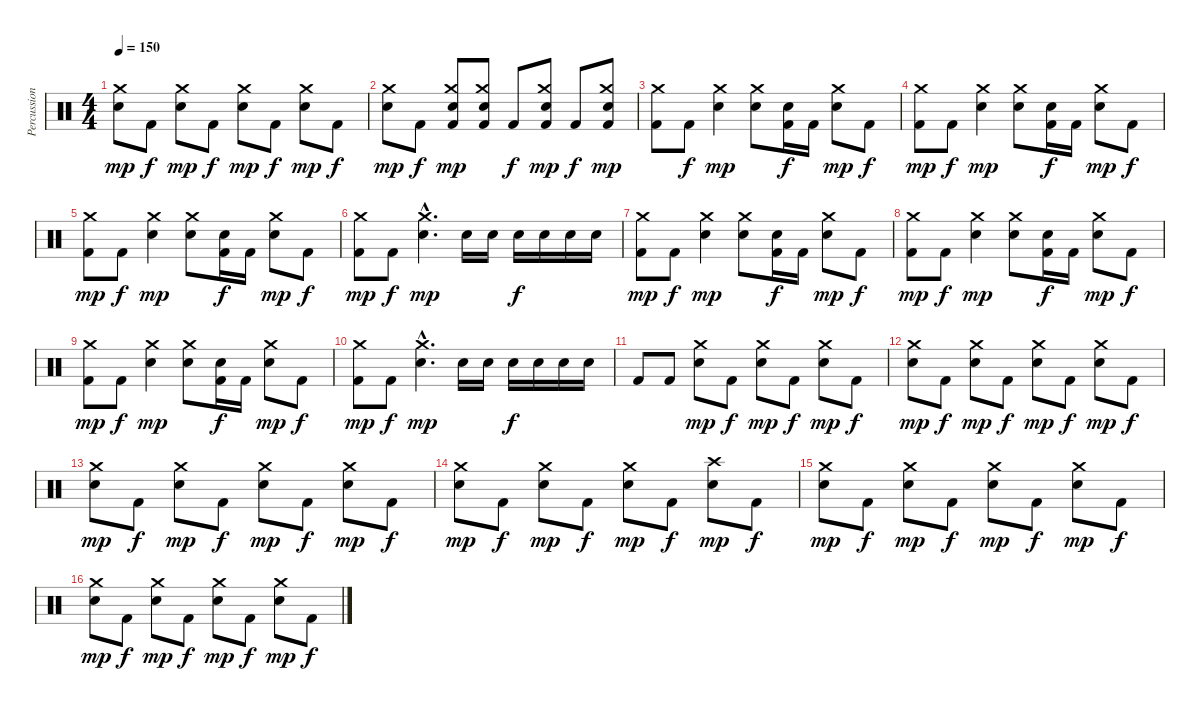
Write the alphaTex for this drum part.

\track ("Percussions" "Percussion") {instrument percussion}
\staff {score}
\articulation defaults
\ts (4 4)
\tempo 150
\clef neutral
\ks c
("Electric Snare (hit)" "Crash medium (hit)").8{dy mp} "Kick (hit) 2".8{dy f} ("Electric Snare (hit)" "Crash medium (hit)").8{dy mp} "Kick (hit) 2".8{dy f} ("Electric Snare (hit)" "Crash medium (hit)").8{dy mp} "Kick (hit) 2".8{dy f} ("Electric Snare (hit)" "Crash medium (hit)").8{dy mp} "Kick (hit) 2".8{dy f} |
("Electric Snare (hit)" "Crash medium (hit)").8{dy mp} "Kick (hit) 2".8{dy f} ("Kick (hit) 2" "Electric Snare (hit)" "Crash medium (hit)").8{dy mp} ("Kick (hit) 2" "Electric Snare (hit)" "Crash medium (hit)").8 "Kick (hit) 2".8{dy f} ("Kick (hit) 2" "Electric Snare (hit)" "Crash medium (hit)").8{dy mp} "Kick (hit) 2".8{dy f} ("Kick (hit) 2" "Electric Snare (hit)" "Crash medium (hit)").8{dy mp} |
("Kick (hit) 2" "Crash medium (hit)").8 "Kick (hit) 2".8{dy f} ("Electric Snare (hit)" "Crash medium (hit)").4{dy mp} ("Electric Snare (hit)" "Crash medium (hit)").8 ("Kick (hit) 2" "Electric Snare (hit)").16{dy f} "Kick (hit) 2".16 ("Electric Snare (hit)" "Crash medium (hit)").8{dy mp} "Kick (hit) 2".8{dy f} |
("Kick (hit) 2" "Crash medium (hit)").8{dy mp} "Kick (hit) 2".8{dy f} ("Electric Snare (hit)" "Crash medium (hit)").4{dy mp} ("Electric Snare (hit)" "Crash medium (hit)").8 ("Kick (hit) 2" "Electric Snare (hit)").16{dy f} "Kick (hit) 2".16 ("Electric Snare (hit)" "Crash medium (hit)").8{dy mp} "Kick (hit) 2".8{dy f} |
("Kick (hit) 2" "Crash medium (hit)").8{dy mp} "Kick (hit) 2".8{dy f} ("Electric Snare (hit)" "Crash medium (hit)").4{dy mp} ("Electric Snare (hit)" "Crash medium (hit)").8 ("Kick (hit) 2" "Electric Snare (hit)").16{dy f} "Kick (hit) 2".16 ("Electric Snare (hit)" "Crash medium (hit)").8{dy mp} "Kick (hit) 2".8{dy f} |
("Kick (hit) 2" "Crash medium (hit)").8{dy mp} "Kick (hit) 2".8{dy f} ("Electric Snare (hit)"{hac} "Crash medium (hit)"{hac}).4{d dy mp} "Electric Snare (hit)".16 "Electric Snare (hit)".16 "Electric Snare (hit)".16{dy f} "Electric Snare (hit)".16 "Electric Snare (hit)".16 "Electric Snare (hit)".16 |
("Kick (hit) 2" "Crash medium (hit)").8{dy mp} "Kick (hit) 2".8{dy f} ("Electric Snare (hit)" "Crash medium (hit)").4{dy mp} ("Electric Snare (hit)" "Crash medium (hit)").8 ("Kick (hit) 2" "Electric Snare (hit)").16{dy f} "Kick (hit) 2".16 ("Electric Snare (hit)" "Crash medium (hit)").8{dy mp} "Kick (hit) 2".8{dy f} |
("Kick (hit) 2" "Crash medium (hit)").8{dy mp} "Kick (hit) 2".8{dy f} ("Electric Snare (hit)" "Crash medium (hit)").4{dy mp} ("Electric Snare (hit)" "Crash medium (hit)").8 ("Kick (hit) 2" "Electric Snare (hit)").16{dy f} "Kick (hit) 2".16 ("Electric Snare (hit)" "Crash medium (hit)").8{dy mp} "Kick (hit) 2".8{dy f} |
("Kick (hit) 2" "Crash medium (hit)").8{dy mp} "Kick (hit) 2".8{dy f} ("Electric Snare (hit)" "Crash medium (hit)").4{dy mp} ("Electric Snare (hit)" "Crash medium (hit)").8 ("Kick (hit) 2" "Electric Snare (hit)").16{dy f} "Kick (hit) 2".16 ("Electric Snare (hit)" "Crash medium (hit)").8{dy mp} "Kick (hit) 2".8{dy f} |
("Kick (hit) 2" "Crash medium (hit)").8{dy mp} "Kick (hit) 2".8{dy f} ("Electric Snare (hit)"{hac} "Crash medium (hit)"{hac}).4{d dy mp} "Electric Snare (hit)".16 "Electric Snare (hit)".16 "Electric Snare (hit)".16{dy f} "Electric Snare (hit)".16 "Electric Snare (hit)".16 "Electric Snare (hit)".16 |
"Kick (hit) 2".8 "Kick (hit) 2".8 ("Electric Snare (hit)" "Crash medium (hit)").8{dy mp} "Kick (hit) 2".8{dy f} ("Electric Snare (hit)" "Crash medium (hit)").8{dy mp} "Kick (hit) 2".8{dy f} ("Electric Snare (hit)" "Crash medium (hit)").8{dy mp} "Kick (hit) 2".8{dy f} |
("Electric Snare (hit)" "Crash medium (hit)").8{dy mp} "Kick (hit) 2".8{dy f} ("Electric Snare (hit)" "Crash medium (hit)").8{dy mp} "Kick (hit) 2".8{dy f} ("Electric Snare (hit)" "Crash medium (hit)").8{dy mp} "Kick (hit) 2".8{dy f} ("Electric Snare (hit)" "Crash medium (hit)").8{dy mp} "Kick (hit) 2".8{dy f} |
("Electric Snare (hit)" "Crash medium (hit)").8{dy mp} "Kick (hit) 2".8{dy f} ("Electric Snare (hit)" "Crash medium (hit)").8{dy mp} "Kick (hit) 2".8{dy f} ("Electric Snare (hit)" "Crash medium (hit)").8{dy mp} "Kick (hit) 2".8{dy f} ("Electric Snare (hit)" "Crash medium (hit)").8{dy mp} "Kick (hit) 2".8{dy f} |
("Electric Snare (hit)" "Crash medium (hit)").8{dy mp} "Kick (hit) 2".8{dy f} ("Electric Snare (hit)" "Crash medium (hit)").8{dy mp} "Kick (hit) 2".8{dy f} ("Electric Snare (hit)" "Crash medium (hit)").8{dy mp} "Kick (hit) 2".8{dy f} ("Electric Snare (hit)" "Crash high (hit)").8{dy mp} "Kick (hit) 2".8{dy f} |
("Electric Snare (hit)" "Crash medium (hit)").8{dy mp} "Kick (hit) 2".8{dy f} ("Electric Snare (hit)" "Crash medium (hit)").8{dy mp} "Kick (hit) 2".8{dy f} ("Electric Snare (hit)" "Crash medium (hit)").8{dy mp} "Kick (hit) 2".8{dy f} ("Electric Snare (hit)" "Crash medium (hit)").8{dy mp} "Kick (hit) 2".8{dy f} |
("Electric Snare (hit)" "Crash medium (hit)").8{dy mp} "Kick (hit) 2".8{dy f} ("Electric Snare (hit)" "Crash medium (hit)").8{dy mp} "Kick (hit) 2".8{dy f} ("Electric Snare (hit)" "Crash medium (hit)").8{dy mp} "Kick (hit) 2".8{dy f} ("Electric Snare (hit)" "Crash medium (hit)").8{dy mp} "Kick (hit) 2".8{dy f}
